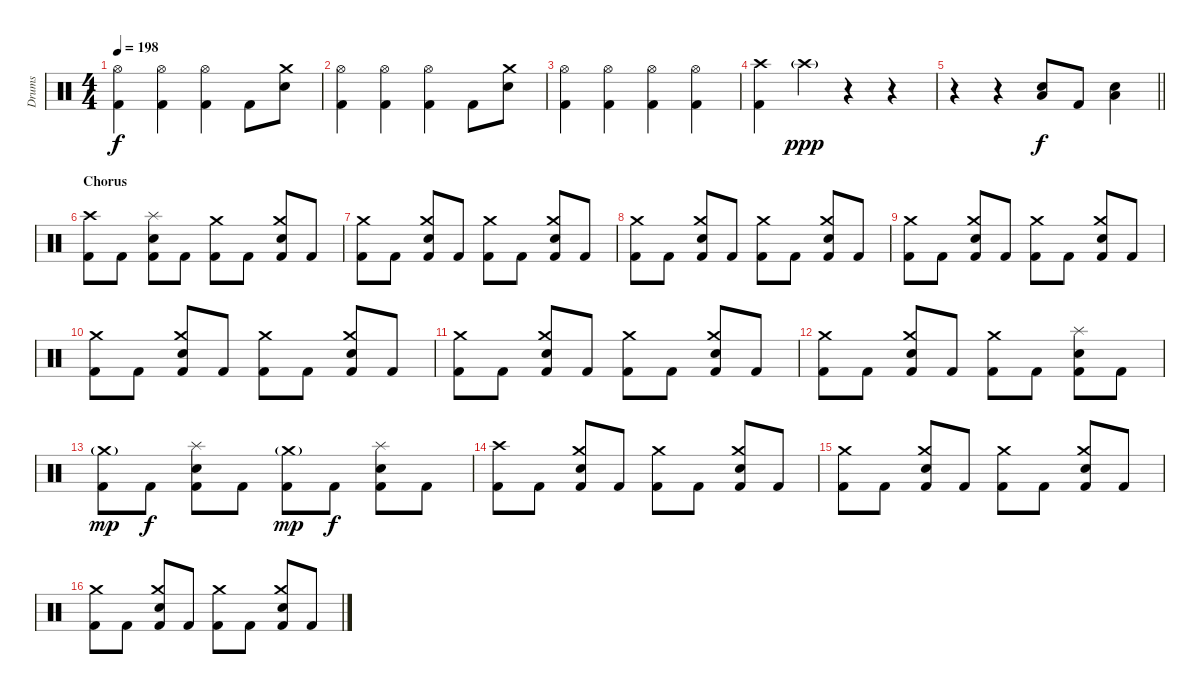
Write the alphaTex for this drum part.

\track ("Drums" "Drums") {instrument percussion}
\staff {score}
\articulation defaults
\ts (4 4)
\tempo 198
\clef neutral
\ks c
("Hi-Hat (open)" "Kick (hit) 2").4{dy f} ("Hi-Hat (open)" "Kick (hit) 2").4 ("Hi-Hat (open)" "Kick (hit) 2").4 "Kick (hit) 2".8 ("Crash medium (hit)" "Electric Snare (hit)").8 |
("Hi-Hat (open)" "Kick (hit) 2").4 ("Hi-Hat (open)" "Kick (hit) 2").4 ("Hi-Hat (open)" "Kick (hit) 2").4 "Kick (hit) 2".8 ("Crash medium (hit)" "Electric Snare (hit)").8 |
("Hi-Hat (open)" "Kick (hit) 2").4 ("Hi-Hat (open)" "Kick (hit) 2").4 ("Hi-Hat (open)" "Kick (hit) 2").4 ("Hi-Hat (open)" "Kick (hit) 2").4 |
("Crash high (hit)" "Kick (hit) 2").4 "Crash high (hit)"{g}.4{dy ppp} r.4 r.4 |
\barLineRight lightlight
r.4 r.4 ("Low Floor Tom (hit)" "Electric Snare (hit)").8{dy f} "Kick (hit) 2".8 ("Low Floor Tom (hit)" "Electric Snare (hit)").4 |
\section ("" "Chorus")
("Crash high (hit)" "Kick (hit) 2").8 "Kick (hit) 2".8 ("Splash (hit)" "Electric Snare (hit)" "Kick (hit) 2").8 "Kick (hit) 2".8 ("Crash medium (hit)" "Kick (hit) 2").8 "Kick (hit) 2".8 ("Crash medium (hit)" "Electric Snare (hit)" "Kick (hit) 2").8 "Kick (hit) 2".8 |
("Crash medium (hit)" "Kick (hit) 2").8 "Kick (hit) 2".8 ("Crash medium (hit)" "Electric Snare (hit)" "Kick (hit) 2").8 "Kick (hit) 2".8 ("Crash medium (hit)" "Kick (hit) 2").8 "Kick (hit) 2".8 ("Crash medium (hit)" "Electric Snare (hit)" "Kick (hit) 2").8 "Kick (hit) 2".8 |
("Crash medium (hit)" "Kick (hit) 2").8 "Kick (hit) 2".8 ("Crash medium (hit)" "Electric Snare (hit)" "Kick (hit) 2").8 "Kick (hit) 2".8 ("Crash medium (hit)" "Kick (hit) 2").8 "Kick (hit) 2".8 ("Crash medium (hit)" "Electric Snare (hit)" "Kick (hit) 2").8 "Kick (hit) 2".8 |
("Crash medium (hit)" "Kick (hit) 2").8 "Kick (hit) 2".8 ("Crash medium (hit)" "Electric Snare (hit)" "Kick (hit) 2").8 "Kick (hit) 2".8 ("Crash medium (hit)" "Kick (hit) 2").8 "Kick (hit) 2".8 ("Crash medium (hit)" "Electric Snare (hit)" "Kick (hit) 2").8 "Kick (hit) 2".8 |
("Crash medium (hit)" "Kick (hit) 2").8 "Kick (hit) 2".8 ("Crash medium (hit)" "Electric Snare (hit)" "Kick (hit) 2").8 "Kick (hit) 2".8 ("Crash medium (hit)" "Kick (hit) 2").8 "Kick (hit) 2".8 ("Crash medium (hit)" "Electric Snare (hit)" "Kick (hit) 2").8 "Kick (hit) 2".8 |
("Crash medium (hit)" "Kick (hit) 2").8 "Kick (hit) 2".8 ("Crash medium (hit)" "Electric Snare (hit)" "Kick (hit) 2").8 "Kick (hit) 2".8 ("Crash medium (hit)" "Kick (hit) 2").8 "Kick (hit) 2".8 ("Crash medium (hit)" "Electric Snare (hit)" "Kick (hit) 2").8 "Kick (hit) 2".8 |
("Crash medium (hit)" "Kick (hit) 2").8 "Kick (hit) 2".8 ("Crash medium (hit)" "Electric Snare (hit)" "Kick (hit) 2").8 "Kick (hit) 2".8 ("Crash medium (hit)" "Kick (hit) 2").8 "Kick (hit) 2".8 ("Splash (hit)" "Electric Snare (hit)" "Kick (hit) 2").8 "Kick (hit) 2".8 |
("Crash medium (hit)"{g} "Kick (hit) 2").8{dy mp} "Kick (hit) 2".8{dy f} ("Splash (hit)" "Electric Snare (hit)" "Kick (hit) 2").8 "Kick (hit) 2".8 ("Crash medium (hit)"{g} "Kick (hit) 2").8{dy mp} "Kick (hit) 2".8{dy f} ("Splash (hit)" "Electric Snare (hit)" "Kick (hit) 2").8 "Kick (hit) 2".8 |
("Crash high (hit)" "Kick (hit) 2").8 "Kick (hit) 2".8 ("Crash medium (hit)" "Electric Snare (hit)" "Kick (hit) 2").8 "Kick (hit) 2".8 ("Crash medium (hit)" "Kick (hit) 2").8 "Kick (hit) 2".8 ("Crash medium (hit)" "Electric Snare (hit)" "Kick (hit) 2").8 "Kick (hit) 2".8 |
("Crash medium (hit)" "Kick (hit) 2").8 "Kick (hit) 2".8 ("Crash medium (hit)" "Electric Snare (hit)" "Kick (hit) 2").8 "Kick (hit) 2".8 ("Crash medium (hit)" "Kick (hit) 2").8 "Kick (hit) 2".8 ("Crash medium (hit)" "Electric Snare (hit)" "Kick (hit) 2").8 "Kick (hit) 2".8 |
("Crash medium (hit)" "Kick (hit) 2").8 "Kick (hit) 2".8 ("Crash medium (hit)" "Electric Snare (hit)" "Kick (hit) 2").8 "Kick (hit) 2".8 ("Crash medium (hit)" "Kick (hit) 2").8 "Kick (hit) 2".8 ("Crash medium (hit)" "Electric Snare (hit)" "Kick (hit) 2").8 "Kick (hit) 2".8
